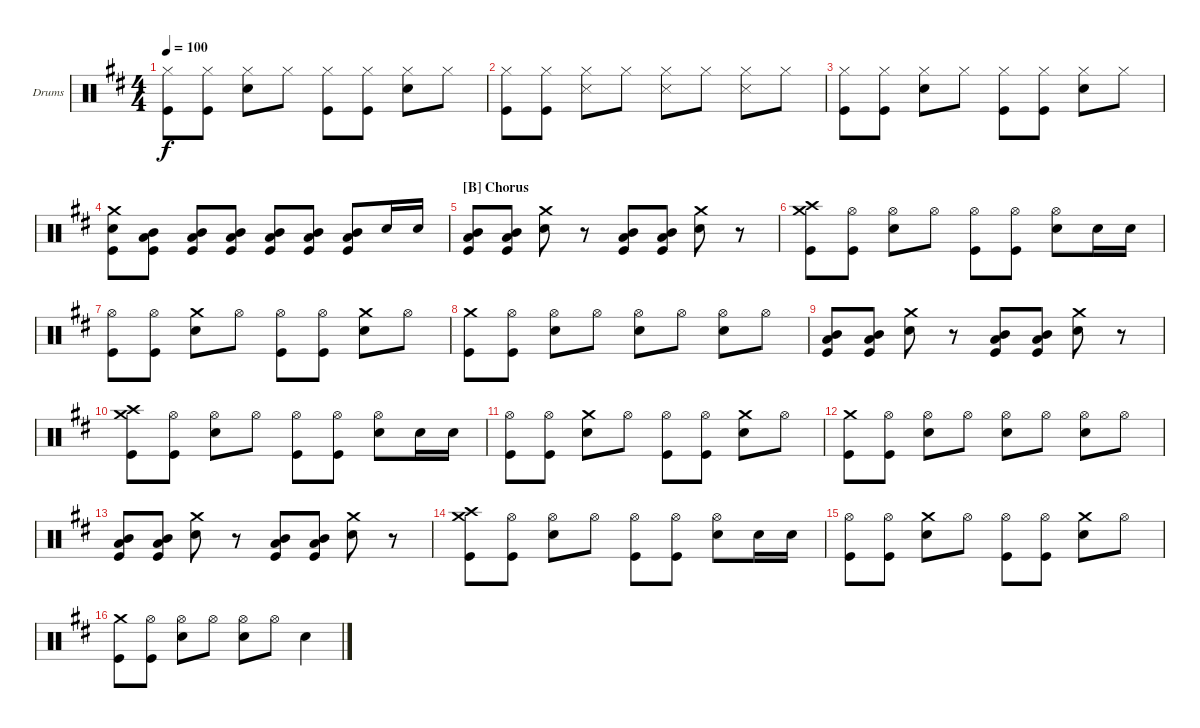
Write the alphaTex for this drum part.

\defaultSystemsLayout 4
\bracketExtendMode groupsimilarinstruments
\firstSystemTrackNameOrientation horizontal
\otherSystemsTrackNameOrientation horizontal
\track ("Drumkit" "Drums") {instrument percussion}
\staff {score}
\articulation defaults
\ts (4 4)
\tempo 100
\clef neutral
\scale
1.05044
\ks d
("Hi-Hat (closed)" "Kick (hit)").8{dy f} ("Hi-Hat (closed)" "Kick (hit)").8 ("Hi-Hat (closed)" "Snare (hit) 2").8 "Hi-Hat (closed)".8 ("Hi-Hat (closed)" "Kick (hit)").8 ("Hi-Hat (closed)" "Kick (hit)").8 ("Hi-Hat (closed)" "Snare (hit) 2").8 "Hi-Hat (closed)".8 |
\scale
0.949559 ("Hi-Hat (closed)" "Kick (hit)").8 ("Hi-Hat (closed)" "Kick (hit)").8 ("Hi-Hat (closed)" "Snare (side stick) 3").8 "Hi-Hat (closed)".8 ("Hi-Hat (closed)" "Snare (side stick) 3").8 "Hi-Hat (closed)".8 ("Hi-Hat (closed)" "Snare (side stick) 3").8 "Hi-Hat (closed)".8 |
\scale
1.05044 ("Hi-Hat (closed)" "Kick (hit)").8 ("Hi-Hat (closed)" "Kick (hit)").8 ("Hi-Hat (closed)" "Snare (hit) 2").8 "Hi-Hat (closed)".8 ("Hi-Hat (closed)" "Kick (hit)").8 ("Hi-Hat (closed)" "Kick (hit)").8 ("Hi-Hat (closed)" "Snare (hit) 2").8 "Hi-Hat (closed)".8 |
\scale
0.949559 ("Crash medium (hit)" "Snare (hit) 2" "Kick (hit)").8 ("Mid Tom (hit)" "Low Tom (hit)" "Kick (hit)").8 ("Mid Tom (hit)" "Low Tom (hit)" "Kick (hit)").8 ("Mid Tom (hit)" "Low Tom (hit)" "Kick (hit)").8 ("Mid Tom (hit)" "Low Tom (hit)" "Kick (hit)").8 ("Mid Tom (hit)" "Low Tom (hit)" "Kick (hit)").8 ("Mid Tom (hit)" "Low Tom (hit)" "Kick (hit)").8 "Snare (hit) 2".16 "Snare (hit) 2".16 |
\section ("B" "Chorus")
\scale
1.05044 ("Mid Tom (hit)" "Low Tom (hit)" "Kick (hit)").8 ("Mid Tom (hit)" "Low Tom (hit)" "Kick (hit)").8 ("Crash medium (hit)" "Snare (hit) 2").8 r.8 ("Mid Tom (hit)" "Low Tom (hit)" "Kick (hit)").8 ("Mid Tom (hit)" "Low Tom (hit)" "Kick (hit)").8 ("Crash medium (hit)" "Snare (hit) 2").8 r.8 |
\scale
0.949559 ("Crash high (hit)" "Crash medium (hit)" "Kick (hit)").8 ("Hi-Hat (open)" "Kick (hit)").8 ("Hi-Hat (open)" "Snare (hit) 2").8 "Hi-Hat (open)".8 ("Hi-Hat (open)" "Kick (hit)").8 ("Hi-Hat (open)" "Kick (hit)").8 ("Hi-Hat (open)" "Snare (hit) 2").8 "Snare (hit) 2".16 "Snare (hit) 2".16 |
\scale
1.05044 ("Hi-Hat (open)" "Kick (hit)").8 ("Hi-Hat (open)" "Kick (hit)").8 ("Crash medium (hit)" "Snare (hit) 2").8 "Hi-Hat (open)".8 ("Hi-Hat (open)" "Kick (hit)").8 ("Hi-Hat (open)" "Kick (hit)").8 ("Crash medium (hit)" "Snare (hit) 2").8 "Hi-Hat (open)".8 |
\scale
0.949559 ("Crash medium (hit)" "Kick (hit)").8 ("Hi-Hat (open)" "Kick (hit)").8 ("Hi-Hat (open)" "Snare (hit) 2").8 "Hi-Hat (open)".8 ("Hi-Hat (open)" "Snare (hit) 2").8 "Hi-Hat (open)".8 ("Hi-Hat (open)" "Snare (hit) 2").8 "Hi-Hat (open)".8 |
\scale
1.05044 ("Mid Tom (hit)" "Low Tom (hit)" "Kick (hit)").8 ("Mid Tom (hit)" "Low Tom (hit)" "Kick (hit)").8 ("Crash medium (hit)" "Snare (hit) 2").8 r.8 ("Mid Tom (hit)" "Low Tom (hit)" "Kick (hit)").8 ("Mid Tom (hit)" "Low Tom (hit)" "Kick (hit)").8 ("Crash medium (hit)" "Snare (hit) 2").8 r.8 |
\scale
0.949559 ("Crash high (hit)" "Crash medium (hit)" "Kick (hit)").8 ("Hi-Hat (open)" "Kick (hit)").8 ("Hi-Hat (open)" "Snare (hit) 2").8 "Hi-Hat (open)".8 ("Hi-Hat (open)" "Kick (hit)").8 ("Hi-Hat (open)" "Kick (hit)").8 ("Hi-Hat (open)" "Snare (hit) 2").8 "Snare (hit) 2".16 "Snare (hit) 2".16 |
\scale
1.05044 ("Hi-Hat (open)" "Kick (hit)").8 ("Hi-Hat (open)" "Kick (hit)").8 ("Crash medium (hit)" "Snare (hit) 2").8 "Hi-Hat (open)".8 ("Hi-Hat (open)" "Kick (hit)").8 ("Hi-Hat (open)" "Kick (hit)").8 ("Crash medium (hit)" "Snare (hit) 2").8 "Hi-Hat (open)".8 |
\scale
0.949559 ("Crash medium (hit)" "Kick (hit)").8 ("Hi-Hat (open)" "Kick (hit)").8 ("Hi-Hat (open)" "Snare (hit) 2").8 "Hi-Hat (open)".8 ("Hi-Hat (open)" "Snare (hit) 2").8 "Hi-Hat (open)".8 ("Hi-Hat (open)" "Snare (hit) 2").8 "Hi-Hat (open)".8 |
\scale
1.05044 ("Mid Tom (hit)" "Low Tom (hit)" "Kick (hit)").8 ("Mid Tom (hit)" "Low Tom (hit)" "Kick (hit)").8 ("Crash medium (hit)" "Snare (hit) 2").8 r.8 ("Mid Tom (hit)" "Low Tom (hit)" "Kick (hit)").8 ("Mid Tom (hit)" "Low Tom (hit)" "Kick (hit)").8 ("Crash medium (hit)" "Snare (hit) 2").8 r.8 |
\scale
0.949559 ("Crash high (hit)" "Crash medium (hit)" "Kick (hit)").8 ("Hi-Hat (open)" "Kick (hit)").8 ("Hi-Hat (open)" "Snare (hit) 2").8 "Hi-Hat (open)".8 ("Hi-Hat (open)" "Kick (hit)").8 ("Hi-Hat (open)" "Kick (hit)").8 ("Hi-Hat (open)" "Snare (hit) 2").8 "Snare (hit) 2".16 "Snare (hit) 2".16 |
\scale
1.05044 ("Hi-Hat (open)" "Kick (hit)").8 ("Hi-Hat (open)" "Kick (hit)").8 ("Crash medium (hit)" "Snare (hit) 2").8 "Hi-Hat (open)".8 ("Hi-Hat (open)" "Kick (hit)").8 ("Hi-Hat (open)" "Kick (hit)").8 ("Crash medium (hit)" "Snare (hit) 2").8 "Hi-Hat (open)".8 |
\scale
0.949559 ("Crash medium (hit)" "Kick (hit)").8 ("Hi-Hat (open)" "Kick (hit)").8 ("Hi-Hat (open)" "Snare (hit) 2").8 "Hi-Hat (open)".8 ("Hi-Hat (open)" "Snare (hit) 2").8 "Hi-Hat (open)".8 "Snare (hit) 2".4
